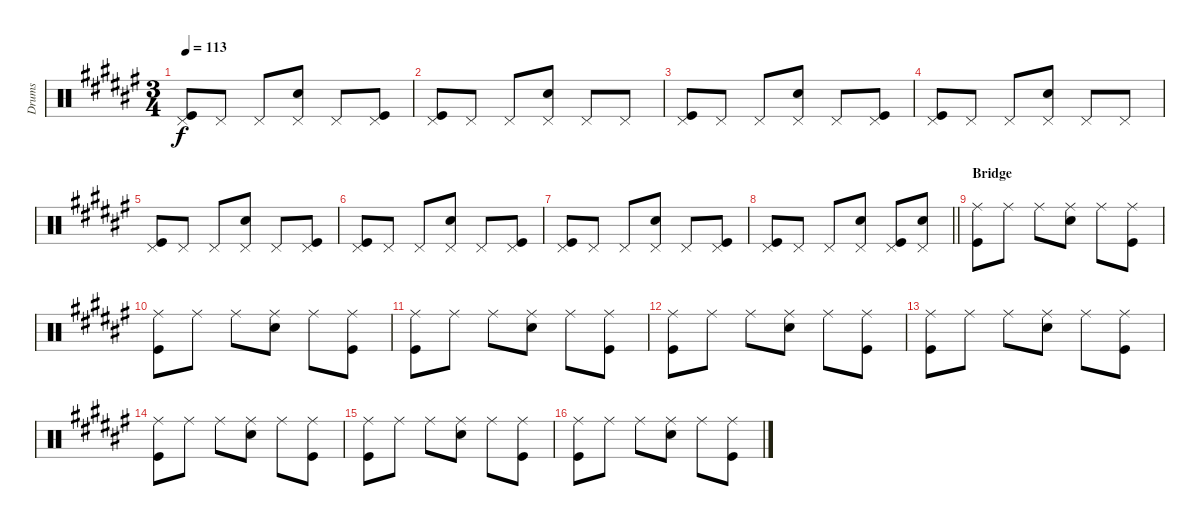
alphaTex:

\track ("Drums" "Drums") {instrument percussion}
\staff {score}
\articulation defaults
\ts (3 4)
\tempo 113
\clef neutral
\ks f#
("Pedal Hi-Hat (hit)" "Kick (hit)").8{dy f} "Pedal Hi-Hat (hit)".8 "Pedal Hi-Hat (hit)".8 ("Pedal Hi-Hat (hit)" "Snare (hit) 2").8 "Pedal Hi-Hat (hit)".8 ("Pedal Hi-Hat (hit)" "Kick (hit)").8 |
("Pedal Hi-Hat (hit)" "Kick (hit)").8 "Pedal Hi-Hat (hit)".8 "Pedal Hi-Hat (hit)".8 ("Pedal Hi-Hat (hit)" "Snare (hit) 2").8 "Pedal Hi-Hat (hit)".8 "Pedal Hi-Hat (hit)".8 |
("Pedal Hi-Hat (hit)" "Kick (hit)").8 "Pedal Hi-Hat (hit)".8 "Pedal Hi-Hat (hit)".8 ("Pedal Hi-Hat (hit)" "Snare (hit) 2").8 "Pedal Hi-Hat (hit)".8 ("Pedal Hi-Hat (hit)" "Kick (hit)").8 |
("Pedal Hi-Hat (hit)" "Kick (hit)").8 "Pedal Hi-Hat (hit)".8 "Pedal Hi-Hat (hit)".8 ("Pedal Hi-Hat (hit)" "Snare (hit) 2").8 "Pedal Hi-Hat (hit)".8 "Pedal Hi-Hat (hit)".8 |
("Pedal Hi-Hat (hit)" "Kick (hit)").8 "Pedal Hi-Hat (hit)".8 "Pedal Hi-Hat (hit)".8 ("Pedal Hi-Hat (hit)" "Snare (hit) 2").8 "Pedal Hi-Hat (hit)".8 ("Pedal Hi-Hat (hit)" "Kick (hit)").8 |
("Pedal Hi-Hat (hit)" "Kick (hit)").8 "Pedal Hi-Hat (hit)".8 "Pedal Hi-Hat (hit)".8 ("Pedal Hi-Hat (hit)" "Snare (hit) 2").8 "Pedal Hi-Hat (hit)".8 ("Pedal Hi-Hat (hit)" "Kick (hit)").8 |
("Pedal Hi-Hat (hit)" "Kick (hit)").8 "Pedal Hi-Hat (hit)".8 "Pedal Hi-Hat (hit)".8 ("Pedal Hi-Hat (hit)" "Snare (hit) 2").8 "Pedal Hi-Hat (hit)".8 ("Pedal Hi-Hat (hit)" "Kick (hit)").8 |
\barLineRight lightlight
("Pedal Hi-Hat (hit)" "Kick (hit)").8 "Pedal Hi-Hat (hit)".8 "Pedal Hi-Hat (hit)".8 ("Pedal Hi-Hat (hit)" "Snare (hit) 2").8 ("Pedal Hi-Hat (hit)" "Kick (hit)").8 ("Pedal Hi-Hat (hit)" "Snare (hit) 2").8 |
\section ("" "Bridge")
("Ride (middle)" "Kick (hit)").8 "Ride (middle)".8 "Ride (middle)".8 ("Ride (middle)" "Snare (hit) 2").8 "Ride (middle)".8 ("Ride (middle)" "Kick (hit)").8 |
("Ride (middle)" "Kick (hit)").8 "Ride (middle)".8 "Ride (middle)".8 ("Ride (middle)" "Snare (hit) 2").8 "Ride (middle)".8 ("Ride (middle)" "Kick (hit)").8 |
("Ride (middle)" "Kick (hit)").8 "Ride (middle)".8 "Ride (middle)".8 ("Ride (middle)" "Snare (hit) 2").8 "Ride (middle)".8 ("Ride (middle)" "Kick (hit)").8 |
("Ride (middle)" "Kick (hit)").8 "Ride (middle)".8 "Ride (middle)".8 ("Ride (middle)" "Snare (hit) 2").8 "Ride (middle)".8 ("Ride (middle)" "Kick (hit)").8 |
("Ride (middle)" "Kick (hit)").8 "Ride (middle)".8 "Ride (middle)".8 ("Ride (middle)" "Snare (hit) 2").8 "Ride (middle)".8 ("Ride (middle)" "Kick (hit)").8 |
("Ride (middle)" "Kick (hit)").8 "Ride (middle)".8 "Ride (middle)".8 ("Ride (middle)" "Snare (hit) 2").8 "Ride (middle)".8 ("Ride (middle)" "Kick (hit)").8 |
("Ride (middle)" "Kick (hit)").8 "Ride (middle)".8 "Ride (middle)".8 ("Ride (middle)" "Snare (hit) 2").8 "Ride (middle)".8 ("Ride (middle)" "Kick (hit)").8 |
("Ride (middle)" "Kick (hit)").8 "Ride (middle)".8 "Ride (middle)".8 ("Ride (middle)" "Snare (hit) 2").8 "Ride (middle)".8 ("Ride (middle)" "Kick (hit)").8
